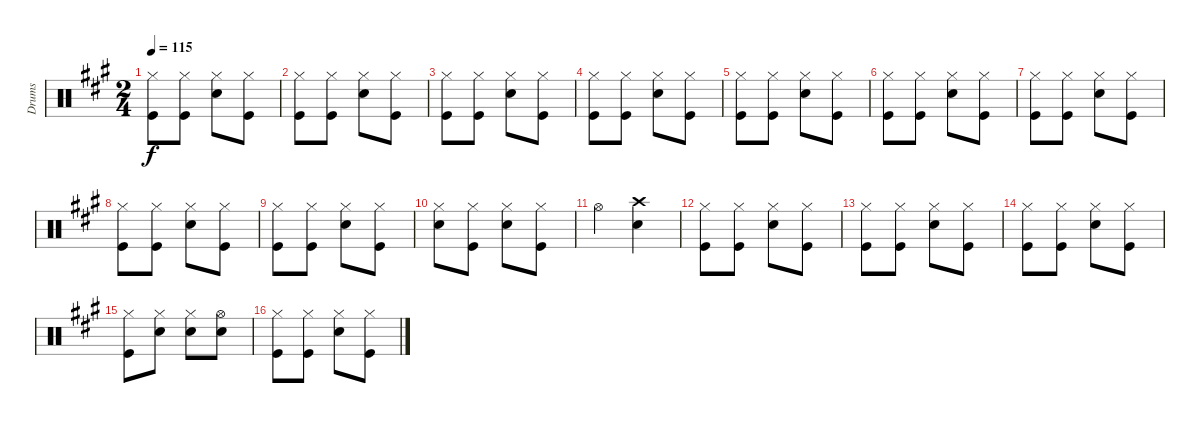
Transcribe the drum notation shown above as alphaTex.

\track ("Drums" "Drums") {instrument percussion}
\staff {score}
\articulation defaults
\ts (2 4)
\tempo 115
\clef neutral
\ks f#minor
("Hi-Hat (closed)" "Kick (hit)").8{dy f} ("Hi-Hat (closed)" "Kick (hit)").8 ("Hi-Hat (closed)" "Electric Snare (hit)").8 ("Hi-Hat (closed)" "Kick (hit)").8 |
("Hi-Hat (closed)" "Kick (hit)").8 ("Hi-Hat (closed)" "Kick (hit)").8 ("Hi-Hat (closed)" "Electric Snare (hit)").8 ("Hi-Hat (closed)" "Kick (hit)").8 |
("Hi-Hat (closed)" "Kick (hit)").8 ("Hi-Hat (closed)" "Kick (hit)").8 ("Hi-Hat (closed)" "Electric Snare (hit)").8 ("Hi-Hat (closed)" "Kick (hit)").8 |
("Hi-Hat (closed)" "Kick (hit)").8 ("Hi-Hat (closed)" "Kick (hit)").8 ("Hi-Hat (closed)" "Electric Snare (hit)").8 ("Hi-Hat (closed)" "Kick (hit)").8 |
("Hi-Hat (closed)" "Kick (hit)").8 ("Hi-Hat (closed)" "Kick (hit)").8 ("Hi-Hat (closed)" "Electric Snare (hit)").8 ("Hi-Hat (closed)" "Kick (hit)").8 |
("Hi-Hat (closed)" "Kick (hit)").8 ("Hi-Hat (closed)" "Kick (hit)").8 ("Hi-Hat (closed)" "Electric Snare (hit)").8 ("Hi-Hat (closed)" "Kick (hit)").8 |
("Hi-Hat (closed)" "Kick (hit)").8 ("Hi-Hat (closed)" "Kick (hit)").8 ("Hi-Hat (closed)" "Electric Snare (hit)").8 ("Hi-Hat (closed)" "Kick (hit)").8 |
("Hi-Hat (closed)" "Kick (hit)").8 ("Hi-Hat (closed)" "Kick (hit)").8 ("Hi-Hat (closed)" "Electric Snare (hit)").8 ("Hi-Hat (closed)" "Kick (hit)").8 |
("Hi-Hat (closed)" "Kick (hit)").8 ("Hi-Hat (closed)" "Kick (hit)").8 ("Hi-Hat (closed)" "Electric Snare (hit)").8 ("Hi-Hat (closed)" "Kick (hit)").8 |
("Hi-Hat (closed)" "Electric Snare (hit)").8 ("Hi-Hat (closed)" "Kick (hit)").8 ("Hi-Hat (closed)" "Electric Snare (hit)").8 ("Hi-Hat (closed)" "Kick (hit)").8 |
"Hi-Hat (open)".4 ("Electric Snare (hit)" "Crash high (hit)").4 |
("Hi-Hat (closed)" "Kick (hit)").8 ("Hi-Hat (closed)" "Kick (hit)").8 ("Hi-Hat (closed)" "Electric Snare (hit)").8 ("Hi-Hat (closed)" "Kick (hit)").8 |
("Hi-Hat (closed)" "Kick (hit)").8 ("Hi-Hat (closed)" "Kick (hit)").8 ("Hi-Hat (closed)" "Electric Snare (hit)").8 ("Hi-Hat (closed)" "Kick (hit)").8 |
("Hi-Hat (closed)" "Kick (hit)").8 ("Hi-Hat (closed)" "Kick (hit)").8 ("Hi-Hat (closed)" "Electric Snare (hit)").8 ("Hi-Hat (closed)" "Kick (hit)").8 |
("Hi-Hat (closed)" "Kick (hit)").8 ("Hi-Hat (closed)" "Electric Snare (hit)").8 ("Hi-Hat (closed)" "Electric Snare (hit)").8 ("Hi-Hat (open)" "Electric Snare (hit)").8 |
("Hi-Hat (closed)" "Kick (hit)").8 ("Hi-Hat (closed)" "Kick (hit)").8 ("Hi-Hat (closed)" "Electric Snare (hit)").8 ("Hi-Hat (closed)" "Kick (hit)").8
